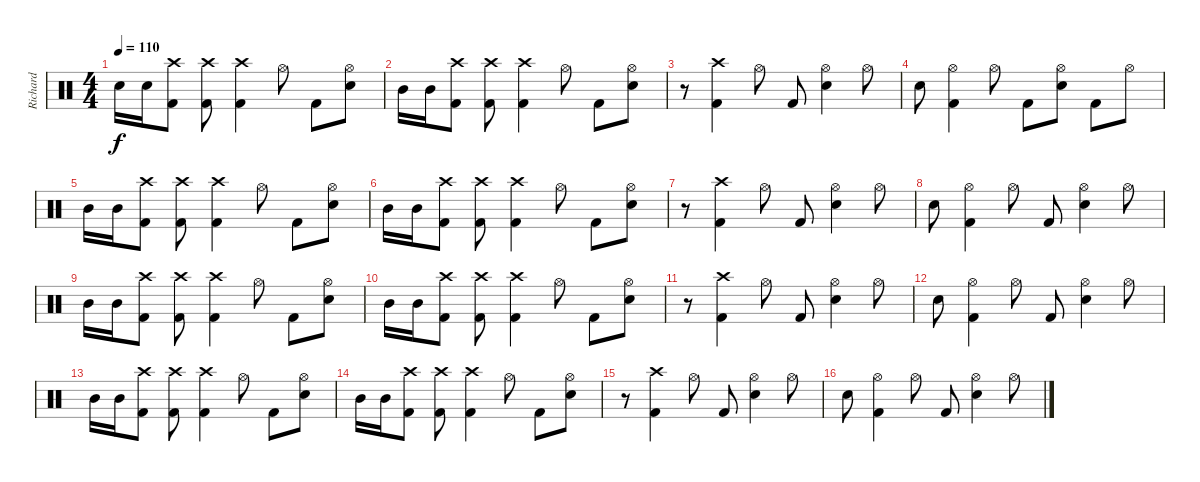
\track ("Richard" "Richard") {instrument percussion}
\staff {score}
\articulation defaults
\ts (4 4)
\tempo 110
\clef neutral
\ks c "Snare (hit) 2".16{dy f} "Snare (hit) 2".16
("Crash high (hit)" "Kick (hit) 2").8 ("Crash high (hit)" "Kick (hit) 2").8 ("Crash high (hit)" "Kick (hit) 2").4 "Hi-Hat (open)".8 "Kick (hit) 2".8 ("Hi-Hat (open)" "Snare (hit) 2").8 |
"Mid Tom (hit)".16 "Mid Tom (hit)".16 ("Crash high (hit)" "Kick (hit) 2").8 ("Crash high (hit)" "Kick (hit) 2").8 ("Crash high (hit)" "Kick (hit) 2").4 "Hi-Hat (open)".8 "Kick (hit) 2".8 ("Hi-Hat (open)" "Snare (hit) 2").8 |
r.8 ("Crash high (hit)" "Kick (hit) 2").4 "Hi-Hat (open)".8 "Kick (hit) 2".8 ("Hi-Hat (open)" "Snare (hit) 2").4 "Hi-Hat (open)".8 |
"Snare (hit) 2".8 ("Hi-Hat (open)" "Kick (hit) 2").4 "Hi-Hat (open)".8 "Kick (hit) 2".8 ("Hi-Hat (open)" "Snare (hit) 2").8 "Kick (hit) 2".8 "Hi-Hat (open)".8 |
"Mid Tom (hit)".16 "Mid Tom (hit)".16 ("Crash high (hit)" "Kick (hit) 2").8 ("Crash high (hit)" "Kick (hit) 2").8 ("Crash high (hit)" "Kick (hit) 2").4 "Hi-Hat (open)".8 "Kick (hit) 2".8 ("Hi-Hat (open)" "Snare (hit) 2").8 |
"Mid Tom (hit)".16 "Mid Tom (hit)".16 ("Crash high (hit)" "Kick (hit) 2").8 ("Crash high (hit)" "Kick (hit) 2").8 ("Crash high (hit)" "Kick (hit) 2").4 "Hi-Hat (open)".8 "Kick (hit) 2".8 ("Hi-Hat (open)" "Snare (hit) 2").8 |
r.8 ("Crash high (hit)" "Kick (hit) 2").4 "Hi-Hat (open)".8 "Kick (hit) 2".8 ("Hi-Hat (open)" "Snare (hit) 2").4 "Hi-Hat (open)".8 |
"Snare (hit) 2".8 ("Hi-Hat (open)" "Kick (hit) 2").4 "Hi-Hat (open)".8 "Kick (hit) 2".8 ("Hi-Hat (open)" "Snare (hit) 2").4 "Hi-Hat (open)".8 |
"Mid Tom (hit)".16 "Mid Tom (hit)".16 ("Crash high (hit)" "Kick (hit) 2").8 ("Crash high (hit)" "Kick (hit) 2").8 ("Crash high (hit)" "Kick (hit) 2").4 "Hi-Hat (open)".8 "Kick (hit) 2".8 ("Hi-Hat (open)" "Snare (hit) 2").8 |
"Mid Tom (hit)".16 "Mid Tom (hit)".16 ("Crash high (hit)" "Kick (hit) 2").8 ("Crash high (hit)" "Kick (hit) 2").8 ("Crash high (hit)" "Kick (hit) 2").4 "Hi-Hat (open)".8 "Kick (hit) 2".8 ("Hi-Hat (open)" "Snare (hit) 2").8 |
r.8 ("Crash high (hit)" "Kick (hit) 2").4 "Hi-Hat (open)".8 "Kick (hit) 2".8 ("Hi-Hat (open)" "Snare (hit) 2").4 "Hi-Hat (open)".8 |
"Snare (hit) 2".8 ("Hi-Hat (open)" "Kick (hit) 2").4 "Hi-Hat (open)".8 "Kick (hit) 2".8 ("Hi-Hat (open)" "Snare (hit) 2").4 "Hi-Hat (open)".8 |
"Mid Tom (hit)".16 "Mid Tom (hit)".16 ("Crash high (hit)" "Kick (hit) 2").8 ("Crash high (hit)" "Kick (hit) 2").8 ("Crash high (hit)" "Kick (hit) 2").4 "Hi-Hat (open)".8 "Kick (hit) 2".8 ("Hi-Hat (open)" "Snare (hit) 2").8 |
"Mid Tom (hit)".16 "Mid Tom (hit)".16 ("Crash high (hit)" "Kick (hit) 2").8 ("Crash high (hit)" "Kick (hit) 2").8 ("Crash high (hit)" "Kick (hit) 2").4 "Hi-Hat (open)".8 "Kick (hit) 2".8 ("Hi-Hat (open)" "Snare (hit) 2").8 |
r.8 ("Crash high (hit)" "Kick (hit) 2").4 "Hi-Hat (open)".8 "Kick (hit) 2".8 ("Hi-Hat (open)" "Snare (hit) 2").4 "Hi-Hat (open)".8 |
"Snare (hit) 2".8 ("Hi-Hat (open)" "Kick (hit) 2").4 "Hi-Hat (open)".8 "Kick (hit) 2".8 ("Hi-Hat (open)" "Snare (hit) 2").4 "Hi-Hat (open)".8
